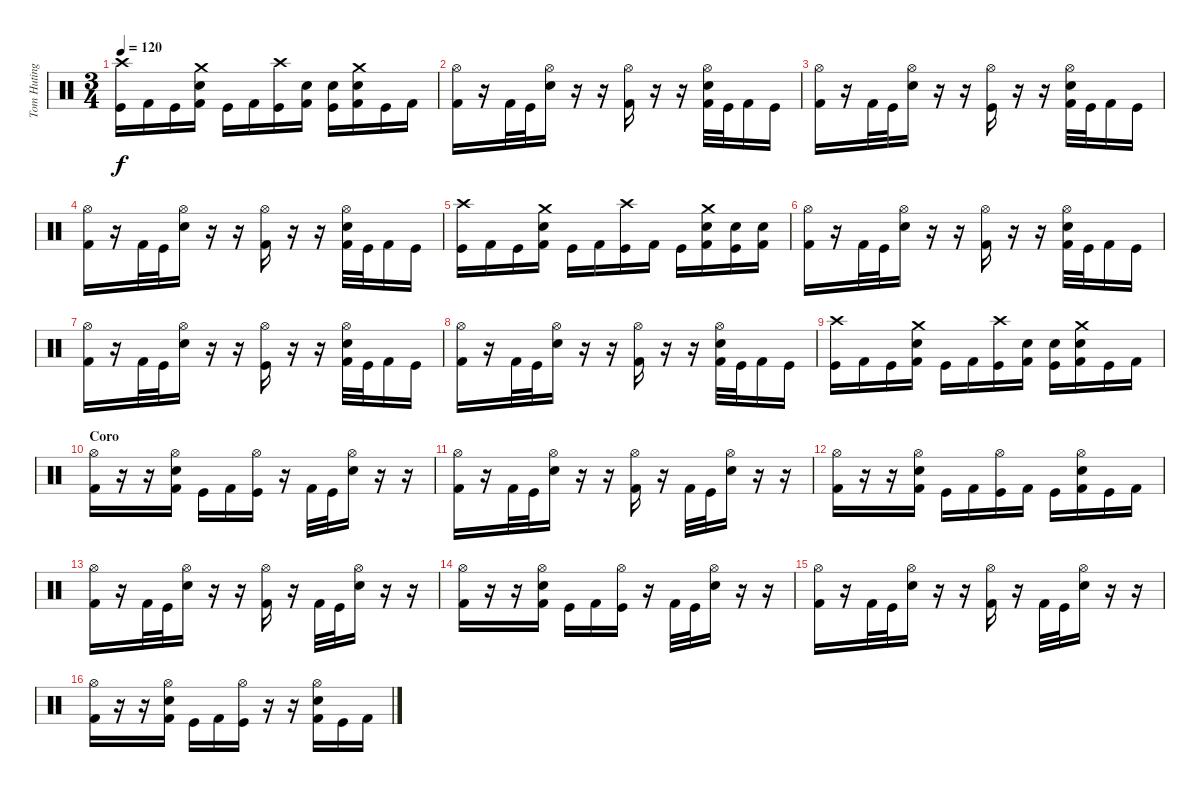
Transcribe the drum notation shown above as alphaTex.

\track ("Tom Huting" "Tom Huting") {instrument percussion}
\staff {score}
\articulation defaults
\ts (3 4)
\tempo 120
\clef neutral
\ks c
("Kick (hit)" "Crash high (hit)").16{dy f} "Kick (hit) 2".16 "Kick (hit)".16 ("Kick (hit) 2" "Snare (hit) 2" "Crash medium (hit)").16 "Kick (hit)".16 "Kick (hit) 2".16 ("Kick (hit)" "Crash high (hit)").16 ("Kick (hit) 2" "Snare (hit) 2").16 ("Kick (hit)" "Snare (hit) 2").16 ("Kick (hit) 2" "Snare (hit) 2" "Crash medium (hit)").16 "Kick (hit)".16 "Kick (hit) 2".16 |
("Kick (hit) 2" "Hi-Hat (open)").16 r.16 "Kick (hit) 2".32 "Kick (hit)".32 ("Snare (hit) 2" "Hi-Hat (open)").16 r.16 r.16 ("Kick (hit) 2" "Hi-Hat (open)").16 r.16 r.16 ("Kick (hit) 2" "Snare (hit) 2" "Hi-Hat (open)").32 "Kick (hit)".32 "Kick (hit) 2".16 "Kick (hit)".16 |
("Kick (hit) 2" "Hi-Hat (open)").16 r.16 "Kick (hit) 2".32 "Kick (hit)".32 ("Snare (hit) 2" "Hi-Hat (open)").16 r.16 r.16 ("Kick (hit)" "Hi-Hat (open)").16 r.16 r.16 ("Kick (hit) 2" "Snare (hit) 2" "Hi-Hat (open)").32 "Kick (hit)".32 "Kick (hit) 2".16 "Kick (hit)".16 |
("Kick (hit) 2" "Hi-Hat (open)").16 r.16 "Kick (hit) 2".32 "Kick (hit)".32 ("Snare (hit) 2" "Hi-Hat (open)").16 r.16 r.16 ("Kick (hit) 2" "Hi-Hat (open)").16 r.16 r.16 ("Kick (hit) 2" "Snare (hit) 2" "Hi-Hat (open)").32 "Kick (hit)".32 "Kick (hit) 2".16 "Kick (hit)".16 |
("Kick (hit)" "Crash high (hit)").16 "Kick (hit) 2".16 "Kick (hit)".16 ("Kick (hit) 2" "Snare (hit) 2" "Crash medium (hit)").16 "Kick (hit)".16 "Kick (hit) 2".16 ("Kick (hit)" "Crash high (hit)").16 "Kick (hit) 2".16 "Kick (hit)".16 ("Kick (hit) 2" "Snare (hit) 2" "Crash medium (hit)").16 ("Kick (hit)" "Snare (hit) 2").16 ("Kick (hit) 2" "Snare (hit) 2").16 |
("Kick (hit) 2" "Hi-Hat (open)").16 r.16 "Kick (hit) 2".32 "Kick (hit)".32 ("Snare (hit) 2" "Hi-Hat (open)").16 r.16 r.16 ("Kick (hit) 2" "Hi-Hat (open)").16 r.16 r.16 ("Kick (hit) 2" "Snare (hit) 2" "Hi-Hat (open)").32 "Kick (hit)".32 "Kick (hit) 2".16 "Kick (hit)".16 |
("Kick (hit) 2" "Hi-Hat (open)").16 r.16 "Kick (hit) 2".32 "Kick (hit)".32 ("Snare (hit) 2" "Hi-Hat (open)").16 r.16 r.16 ("Kick (hit)" "Hi-Hat (open)").16 r.16 r.16 ("Kick (hit) 2" "Snare (hit) 2" "Hi-Hat (open)").32 "Kick (hit)".32 "Kick (hit) 2".16 "Kick (hit)".16 |
("Kick (hit) 2" "Hi-Hat (open)").16 r.16 "Kick (hit) 2".32 "Kick (hit)".32 ("Snare (hit) 2" "Hi-Hat (open)").16 r.16 r.16 ("Kick (hit) 2" "Hi-Hat (open)").16 r.16 r.16 ("Kick (hit) 2" "Snare (hit) 2" "Hi-Hat (open)").32 "Kick (hit)".32 "Kick (hit) 2".16 "Kick (hit)".16 |
("Kick (hit)" "Crash high (hit)").16 "Kick (hit) 2".16 "Kick (hit)".16 ("Kick (hit) 2" "Snare (hit) 2" "Crash medium (hit)").16 "Kick (hit)".16 "Kick (hit) 2".16 ("Kick (hit)" "Crash high (hit)").16 ("Kick (hit) 2" "Snare (hit) 2").16 ("Kick (hit)" "Snare (hit) 2").16 ("Kick (hit) 2" "Snare (hit) 2" "Crash medium (hit)").16 "Kick (hit)".16 "Kick (hit) 2".16 |
\section ("" "Coro")
("Kick (hit) 2" "Hi-Hat (open)").16 r.16 r.16 ("Kick (hit) 2" "Snare (hit) 2" "Hi-Hat (open)").16 "Kick (hit)".16 "Kick (hit) 2".16 ("Kick (hit)" "Hi-Hat (open)").16 r.16 "Kick (hit) 2".32 "Kick (hit)".32 ("Snare (hit) 2" "Hi-Hat (open)").16 r.16 r.16 |
("Kick (hit) 2" "Hi-Hat (open)").16 r.16 "Kick (hit) 2".32 "Kick (hit)".32 ("Snare (hit) 2" "Hi-Hat (open)").16 r.16 r.16 ("Kick (hit) 2" "Hi-Hat (open)").16 r.16 "Kick (hit) 2".32 "Kick (hit)".32 ("Snare (hit) 2" "Hi-Hat (open)").16 r.16 r.16 |
("Kick (hit) 2" "Hi-Hat (open)").16 r.16 r.16 ("Kick (hit) 2" "Snare (hit) 2" "Hi-Hat (open)").16 "Kick (hit)".16 "Kick (hit) 2".16 ("Kick (hit)" "Hi-Hat (open)").16 "Kick (hit) 2".16 "Kick (hit)".16 ("Kick (hit) 2" "Snare (hit) 2" "Hi-Hat (open)").16 "Kick (hit)".16 "Kick (hit) 2".16 |
("Kick (hit) 2" "Hi-Hat (open)").16 r.16 "Kick (hit) 2".32 "Kick (hit)".32 ("Snare (hit) 2" "Hi-Hat (open)").16 r.16 r.16 ("Kick (hit) 2" "Hi-Hat (open)").16 r.16 "Kick (hit) 2".32 "Kick (hit)".32 ("Snare (hit) 2" "Hi-Hat (open)").16 r.16 r.16 |
("Kick (hit) 2" "Hi-Hat (open)").16 r.16 r.16 ("Kick (hit) 2" "Snare (hit) 2" "Hi-Hat (open)").16 "Kick (hit)".16 "Kick (hit) 2".16 ("Kick (hit)" "Hi-Hat (open)").16 r.16 "Kick (hit) 2".32 "Kick (hit)".32 ("Snare (hit) 2" "Hi-Hat (open)").16 r.16 r.16 |
("Kick (hit) 2" "Hi-Hat (open)").16 r.16 "Kick (hit) 2".32 "Kick (hit)".32 ("Snare (hit) 2" "Hi-Hat (open)").16 r.16 r.16 ("Kick (hit) 2" "Hi-Hat (open)").16 r.16 "Kick (hit) 2".32 "Kick (hit)".32 ("Snare (hit) 2" "Hi-Hat (open)").16 r.16 r.16 |
("Kick (hit) 2" "Hi-Hat (open)").16 r.16 r.16 ("Kick (hit) 2" "Snare (hit) 2" "Hi-Hat (open)").16 "Kick (hit)".16 "Kick (hit) 2".16 ("Kick (hit)" "Hi-Hat (open)").16 r.16 r.16 ("Kick (hit) 2" "Snare (hit) 2" "Hi-Hat (open)").16 "Kick (hit)".16 "Kick (hit) 2".16
